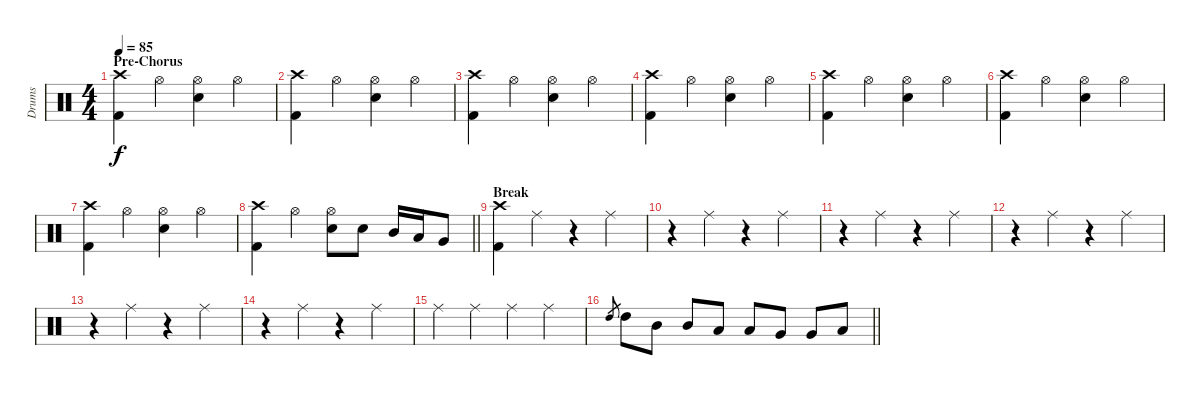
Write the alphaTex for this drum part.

\track ("Drums" "Drums") {instrument percussion}
\staff {score}
\articulation defaults
\ts (4 4)
\section ("" "Pre-Chorus")
\tempo 85
\clef neutral
\ks c
("Crash high (hit)" "Kick (hit) 2").4{dy f} "Hi-Hat (open)".4 ("Hi-Hat (open)" "Snare (hit) 2").4 "Hi-Hat (open)".4 |
("Crash high (hit)" "Kick (hit) 2").4 "Hi-Hat (open)".4 ("Hi-Hat (open)" "Snare (hit) 2").4 "Hi-Hat (open)".4 |
("Crash high (hit)" "Kick (hit) 2").4 "Hi-Hat (open)".4 ("Hi-Hat (open)" "Snare (hit) 2").4 "Hi-Hat (open)".4 |
("Crash high (hit)" "Kick (hit) 2").4 "Hi-Hat (open)".4 ("Hi-Hat (open)" "Snare (hit) 2").4 "Hi-Hat (open)".4 |
("Crash high (hit)" "Kick (hit) 2").4 "Hi-Hat (open)".4 ("Hi-Hat (open)" "Snare (hit) 2").4 "Hi-Hat (open)".4 |
("Crash high (hit)" "Kick (hit) 2").4 "Hi-Hat (open)".4 ("Hi-Hat (open)" "Snare (hit) 2").4 "Hi-Hat (open)".4 |
("Crash high (hit)" "Kick (hit) 2").4 "Hi-Hat (open)".4 ("Hi-Hat (open)" "Snare (hit) 2").4 "Hi-Hat (open)".4 |
\barLineRight lightlight
("Crash high (hit)" "Kick (hit) 2").4 "Hi-Hat (open)".4 ("Hi-Hat (open)" "Snare (hit) 2").8 "Snare (hit) 2".8 "Mid Tom (hit)".16 "Low Tom (hit)".16 "Very Low Tom (hit)".8 |
\section ("" "Break")
("Crash high (hit)" "Kick (hit) 2").4 "Ride (middle)".4 r.4 "Ride (middle)".4 |
r.4 "Ride (middle)".4 r.4 "Ride (middle)".4 |
r.4 "Ride (middle)".4 r.4 "Ride (middle)".4 |
r.4 "Ride (middle)".4 r.4 "Ride (middle)".4 |
r.4 "Ride (middle)".4 r.4 "Ride (middle)".4 |
r.4 "Ride (middle)".4 r.4 "Ride (middle)".4 |
"Ride (middle)".4 "Ride (middle)".4 "Ride (middle)".4 "Ride (middle)".4 |
\barLineRight lightlight "High Tom (hit)".8{gr} "High Tom (hit)".8 "Mid Tom (hit)".8 "Mid Tom (hit)".8 "Low Tom (hit)".8 "Low Tom (hit)".8 "Very Low Tom (hit)".8 "Very Low Tom (hit)".8 "Low Floor Tom (hit)".8
